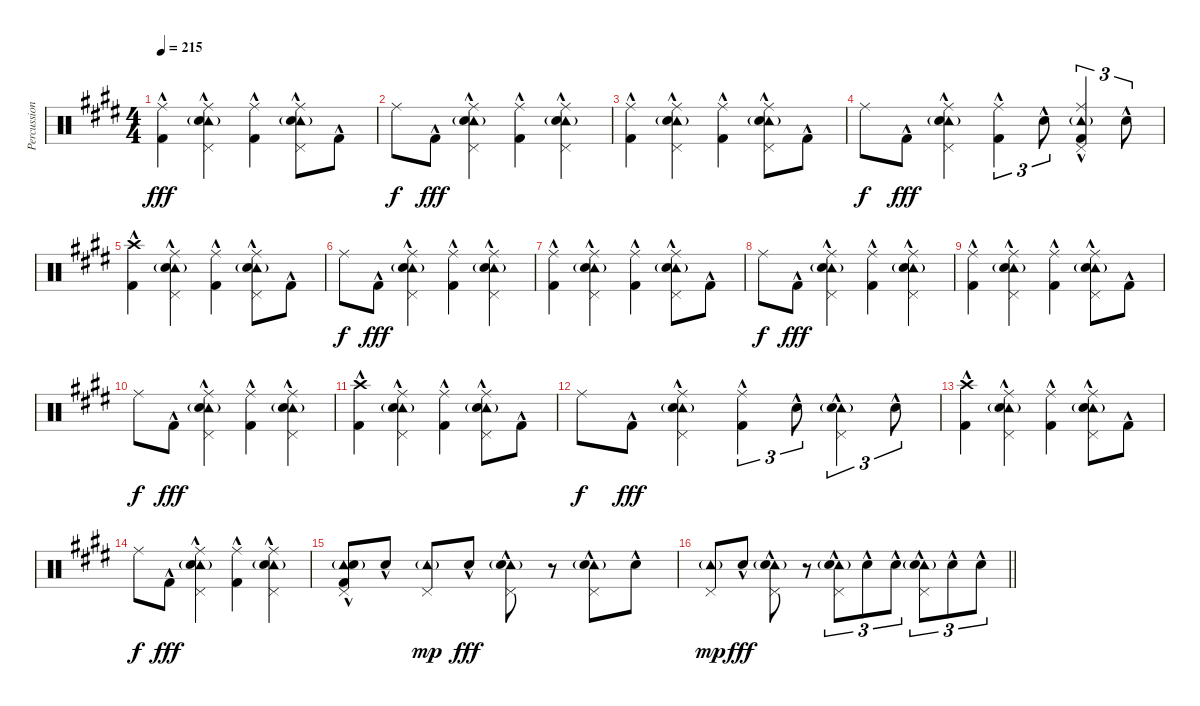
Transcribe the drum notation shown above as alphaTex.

\track ("Percussion" "Percussion") {instrument percussion}
\staff {score}
\articulation defaults
\ts (4 4)
\tempo 215
\clef neutral
\ks e
("Ride (middle)" "Kick (hit) 2"{hac}).4{dy fff} ("Tambourine (hit)"{g} "Pedal Hi-Hat (hit)" "Ride (middle)" "Electric Snare (hit)"{hac}).4 ("Ride (middle)" "Kick (hit) 2"{hac}).4 ("Tambourine (hit)"{g} "Pedal Hi-Hat (hit)" "Ride (middle)" "Electric Snare (hit)"{hac}).8 "Kick (hit) 2"{hac}.8 |
"Ride (middle)".8{dy f} "Kick (hit) 2"{hac}.8{dy fff} ("Tambourine (hit)"{g} "Pedal Hi-Hat (hit)" "Ride (middle)" "Electric Snare (hit)"{hac}).4 ("Ride (middle)" "Kick (hit) 2"{hac}).4 ("Tambourine (hit)"{g} "Pedal Hi-Hat (hit)" "Ride (middle)" "Electric Snare (hit)"{hac}).4 |
("Ride (middle)" "Kick (hit) 2"{hac}).4 ("Tambourine (hit)"{g} "Pedal Hi-Hat (hit)" "Ride (middle)" "Electric Snare (hit)"{hac}).4 ("Ride (middle)" "Kick (hit) 2"{hac}).4 ("Tambourine (hit)"{g} "Pedal Hi-Hat (hit)" "Ride (middle)" "Electric Snare (hit)"{hac}).8 "Kick (hit) 2"{hac}.8 |
"Ride (middle)".8{dy f} "Kick (hit) 2"{hac}.8{dy fff} ("Tambourine (hit)"{g} "Pedal Hi-Hat (hit)" "Ride (middle)" "Electric Snare (hit)"{hac}).4 ("Ride (middle)" "Kick (hit) 2"{hac}).4{tu (3 2)} "Electric Snare (hit)"{hac}.8{tu (3 2)} ("Tambourine (hit)"{g} "Pedal Hi-Hat (hit)" "Ride (middle)" "Kick (hit) 2"{hac}).4{tu (3 2)} "Electric Snare (hit)"{hac}.8{tu (3 2)} |
("Crash high (hit)" "Kick (hit) 2"{hac}).4 ("Tambourine (hit)"{g} "Pedal Hi-Hat (hit)" "Ride (middle)" "Electric Snare (hit)"{hac}).4 ("Ride (middle)" "Kick (hit) 2"{hac}).4 ("Tambourine (hit)"{g} "Pedal Hi-Hat (hit)" "Ride (middle)" "Electric Snare (hit)"{hac}).8 "Kick (hit) 2"{hac}.8 |
"Ride (middle)".8{dy f} "Kick (hit) 2"{hac}.8{dy fff} ("Tambourine (hit)"{g} "Pedal Hi-Hat (hit)" "Ride (middle)" "Electric Snare (hit)"{hac}).4 ("Ride (middle)" "Kick (hit) 2"{hac}).4 ("Tambourine (hit)"{g} "Pedal Hi-Hat (hit)" "Ride (middle)" "Electric Snare (hit)"{hac}).4 |
("Ride (middle)" "Kick (hit) 2"{hac}).4 ("Tambourine (hit)"{g} "Pedal Hi-Hat (hit)" "Ride (middle)" "Electric Snare (hit)"{hac}).4 ("Ride (middle)" "Kick (hit) 2"{hac}).4 ("Tambourine (hit)"{g} "Pedal Hi-Hat (hit)" "Ride (middle)" "Electric Snare (hit)"{hac}).8 "Kick (hit) 2"{hac}.8 |
"Ride (middle)".8{dy f} "Kick (hit) 2"{hac}.8{dy fff} ("Tambourine (hit)"{g} "Pedal Hi-Hat (hit)" "Ride (middle)" "Electric Snare (hit)"{hac}).4 ("Ride (middle)" "Kick (hit) 2"{hac}).4 ("Tambourine (hit)"{g} "Pedal Hi-Hat (hit)" "Ride (middle)" "Electric Snare (hit)"{hac}).4 |
("Ride (middle)" "Kick (hit) 2"{hac}).4 ("Tambourine (hit)"{g} "Pedal Hi-Hat (hit)" "Ride (middle)" "Electric Snare (hit)"{hac}).4 ("Ride (middle)" "Kick (hit) 2"{hac}).4 ("Tambourine (hit)"{g} "Pedal Hi-Hat (hit)" "Ride (middle)" "Electric Snare (hit)"{hac}).8 "Kick (hit) 2"{hac}.8 |
"Ride (middle)".8{dy f} "Kick (hit) 2"{hac}.8{dy fff} ("Tambourine (hit)"{g} "Pedal Hi-Hat (hit)" "Ride (middle)" "Electric Snare (hit)"{hac}).4 ("Ride (middle)" "Kick (hit) 2"{hac}).4 ("Tambourine (hit)"{g} "Pedal Hi-Hat (hit)" "Ride (middle)" "Electric Snare (hit)"{hac}).4 |
("Crash high (hit)" "Kick (hit) 2"{hac}).4 ("Tambourine (hit)"{g} "Pedal Hi-Hat (hit)" "Ride (middle)" "Electric Snare (hit)"{hac}).4 ("Ride (middle)" "Kick (hit) 2"{hac}).4 ("Tambourine (hit)"{g} "Pedal Hi-Hat (hit)" "Ride (middle)" "Electric Snare (hit)"{hac}).8 "Kick (hit) 2"{hac}.8 |
"Ride (middle)".8{dy f} "Kick (hit) 2"{hac}.8{dy fff} ("Tambourine (hit)"{g} "Pedal Hi-Hat (hit)" "Ride (middle)" "Electric Snare (hit)"{hac}).4 ("Ride (middle)" "Kick (hit) 2"{hac}).4{tu (3 2)} "Electric Snare (hit)"{hac}.8{tu (3 2)} ("Tambourine (hit)"{g} "Pedal Hi-Hat (hit)" "Electric Snare (hit)"{hac}).4{tu (3 2)} "Electric Snare (hit)"{hac}.8{tu (3 2)} |
("Crash high (hit)" "Kick (hit) 2"{hac}).4 ("Tambourine (hit)"{g} "Pedal Hi-Hat (hit)" "Ride (middle)" "Electric Snare (hit)"{hac}).4 ("Ride (middle)" "Kick (hit) 2"{hac}).4 ("Tambourine (hit)"{g} "Pedal Hi-Hat (hit)" "Ride (middle)" "Electric Snare (hit)"{hac}).8 "Kick (hit) 2"{hac}.8 |
"Ride (middle)".8{dy f} "Kick (hit) 2"{hac}.8{dy fff} ("Tambourine (hit)"{g} "Pedal Hi-Hat (hit)" "Ride (middle)" "Electric Snare (hit)"{hac}).4 ("Ride (middle)" "Kick (hit) 2"{hac}).4 ("Tambourine (hit)"{g} "Pedal Hi-Hat (hit)" "Ride (middle)" "Electric Snare (hit)"{hac}).4 |
("Tambourine (hit)"{g} "Pedal Hi-Hat (hit)" "Electric Snare (hit)"{hac} "Kick (hit) 2"{hac}).8 "Electric Snare (hit)"{hac}.8 ("Tambourine (hit)"{g} "Pedal Hi-Hat (hit)").8{dy mp} "Electric Snare (hit)"{hac}.8{dy fff} ("Tambourine (hit)"{g} "Pedal Hi-Hat (hit)" "Electric Snare (hit)"{hac}).8 r.8 ("Tambourine (hit)"{g} "Pedal Hi-Hat (hit)" "Electric Snare (hit)"{hac}).8 "Electric Snare (hit)"{hac}.8 |
\barLineRight lightlight
("Tambourine (hit)"{g} "Pedal Hi-Hat (hit)").8{dy mp} "Electric Snare (hit)"{hac}.8{dy fff} ("Tambourine (hit)"{g} "Pedal Hi-Hat (hit)" "Electric Snare (hit)"{hac}).8 r.8 ("Tambourine (hit)"{g} "Pedal Hi-Hat (hit)" "Electric Snare (hit)"{hac}).8{tu (3 2)} "Electric Snare (hit)"{hac}.8{tu (3 2)} "Electric Snare (hit)"{hac}.8{tu (3 2)} ("Tambourine (hit)"{g} "Pedal Hi-Hat (hit)" "Electric Snare (hit)"{hac}).8{tu (3 2)} "Electric Snare (hit)"{hac}.8{tu (3 2)} "Electric Snare (hit)"{hac}.8{tu (3 2)}
